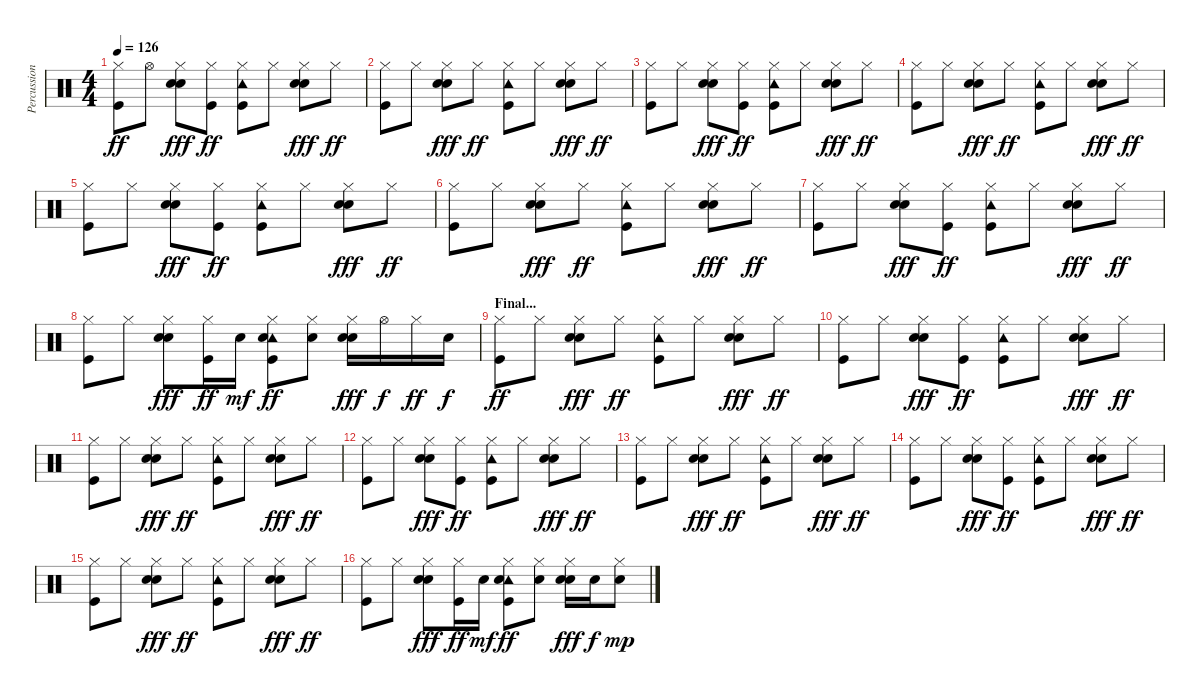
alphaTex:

\track ("Percussions" "Percussion") {instrument percussion}
\staff {score}
\articulation defaults
\ts (4 4)
\tempo 126
\clef neutral
\ks c
("Hi-Hat (closed)" "Kick (hit)").8{dy ff} "Hi-Hat (open)".8 ("Hi-Hat (closed)" "Hand Clap (hit)" "Electric Snare (hit)").8{dy fff} ("Hi-Hat (closed)" "Kick (hit)").8{dy ff} ("Hi-Hat (closed)" "Tambourine (hit)" "Kick (hit)").8 "Hi-Hat (closed)".8 ("Hi-Hat (closed)" "Hand Clap (hit)" "Electric Snare (hit)").8{dy fff} "Hi-Hat (closed)".8{dy ff} |
("Hi-Hat (closed)" "Kick (hit)").8 "Hi-Hat (closed)".8 ("Hi-Hat (closed)" "Hand Clap (hit)" "Electric Snare (hit)").8{dy fff} "Hi-Hat (closed)".8{dy ff} ("Hi-Hat (closed)" "Tambourine (hit)" "Kick (hit)").8 "Hi-Hat (closed)".8 ("Hi-Hat (closed)" "Hand Clap (hit)" "Electric Snare (hit)").8{dy fff} "Hi-Hat (closed)".8{dy ff} |
("Hi-Hat (closed)" "Kick (hit)").8 "Hi-Hat (closed)".8 ("Hi-Hat (closed)" "Hand Clap (hit)" "Electric Snare (hit)").8{dy fff} ("Hi-Hat (closed)" "Kick (hit)").8{dy ff} ("Hi-Hat (closed)" "Tambourine (hit)" "Kick (hit)").8 "Hi-Hat (closed)".8 ("Hi-Hat (closed)" "Hand Clap (hit)" "Electric Snare (hit)").8{dy fff} "Hi-Hat (closed)".8{dy ff} |
("Hi-Hat (closed)" "Kick (hit)").8 "Hi-Hat (closed)".8 ("Hi-Hat (closed)" "Hand Clap (hit)" "Electric Snare (hit)").8{dy fff} "Hi-Hat (closed)".8{dy ff} ("Hi-Hat (closed)" "Tambourine (hit)" "Kick (hit)").8 "Hi-Hat (closed)".8 ("Hi-Hat (closed)" "Hand Clap (hit)" "Electric Snare (hit)").8{dy fff} "Hi-Hat (closed)".8{dy ff} |
("Hi-Hat (closed)" "Kick (hit)").8 "Hi-Hat (closed)".8 ("Hi-Hat (closed)" "Hand Clap (hit)" "Electric Snare (hit)").8{dy fff} ("Hi-Hat (closed)" "Kick (hit)").8{dy ff} ("Hi-Hat (closed)" "Tambourine (hit)" "Kick (hit)").8 "Hi-Hat (closed)".8 ("Hi-Hat (closed)" "Hand Clap (hit)" "Electric Snare (hit)").8{dy fff} "Hi-Hat (closed)".8{dy ff} |
("Hi-Hat (closed)" "Kick (hit)").8 "Hi-Hat (closed)".8 ("Hi-Hat (closed)" "Hand Clap (hit)" "Electric Snare (hit)").8{dy fff} "Hi-Hat (closed)".8{dy ff} ("Hi-Hat (closed)" "Tambourine (hit)" "Kick (hit)").8 "Hi-Hat (closed)".8 ("Hi-Hat (closed)" "Hand Clap (hit)" "Electric Snare (hit)").8{dy fff} "Hi-Hat (closed)".8{dy ff} |
("Hi-Hat (closed)" "Kick (hit)").8 "Hi-Hat (closed)".8 ("Hi-Hat (closed)" "Hand Clap (hit)" "Electric Snare (hit)").8{dy fff} ("Hi-Hat (closed)" "Kick (hit)").8{dy ff} ("Hi-Hat (closed)" "Tambourine (hit)" "Kick (hit)").8 "Hi-Hat (closed)".8 ("Hi-Hat (closed)" "Hand Clap (hit)" "Electric Snare (hit)").8{dy fff} "Hi-Hat (closed)".8{dy ff} |
("Hi-Hat (closed)" "Kick (hit)").8 "Hi-Hat (closed)".8 ("Hi-Hat (closed)" "Hand Clap (hit)" "Electric Snare (hit)").8{dy fff} ("Hi-Hat (closed)" "Kick (hit)").16{dy ff} "Electric Snare (hit)".16{dy mf} ("Hi-Hat (closed)" "Tambourine (hit)" "Electric Snare (hit)" "Kick (hit)").8{dy ff} ("Hi-Hat (closed)" "Electric Snare (hit)").8 ("Hi-Hat (closed)" "Hand Clap (hit)" "Electric Snare (hit)").16{dy fff} "Hi-Hat (open)".16{dy f} "Hi-Hat (closed)".16{dy ff} "Electric Snare (hit)".16{dy f} |
\section ("" "Final...")
("Hi-Hat (closed)" "Kick (hit)").8{dy ff} "Hi-Hat (closed)".8 ("Hi-Hat (closed)" "Hand Clap (hit)" "Electric Snare (hit)").8{dy fff} "Hi-Hat (closed)".8{dy ff} ("Hi-Hat (closed)" "Tambourine (hit)" "Kick (hit)").8 "Hi-Hat (closed)".8 ("Hi-Hat (closed)" "Hand Clap (hit)" "Electric Snare (hit)").8{dy fff} "Hi-Hat (closed)".8{dy ff} |
("Hi-Hat (closed)" "Kick (hit)").8 "Hi-Hat (closed)".8 ("Hi-Hat (closed)" "Hand Clap (hit)" "Electric Snare (hit)").8{dy fff} ("Hi-Hat (closed)" "Kick (hit)").8{dy ff} ("Hi-Hat (closed)" "Tambourine (hit)" "Kick (hit)").8 "Hi-Hat (closed)".8 ("Hi-Hat (closed)" "Hand Clap (hit)" "Electric Snare (hit)").8{dy fff} "Hi-Hat (closed)".8{dy ff} |
("Hi-Hat (closed)" "Kick (hit)").8 "Hi-Hat (closed)".8 ("Hi-Hat (closed)" "Hand Clap (hit)" "Electric Snare (hit)").8{dy fff} "Hi-Hat (closed)".8{dy ff} ("Hi-Hat (closed)" "Tambourine (hit)" "Kick (hit)").8 "Hi-Hat (closed)".8 ("Hi-Hat (closed)" "Hand Clap (hit)" "Electric Snare (hit)").8{dy fff} "Hi-Hat (closed)".8{dy ff} |
("Hi-Hat (closed)" "Kick (hit)").8 "Hi-Hat (closed)".8 ("Hi-Hat (closed)" "Hand Clap (hit)" "Electric Snare (hit)").8{dy fff} ("Hi-Hat (closed)" "Kick (hit)").8{dy ff} ("Hi-Hat (closed)" "Tambourine (hit)" "Kick (hit)").8 "Hi-Hat (closed)".8 ("Hi-Hat (closed)" "Hand Clap (hit)" "Electric Snare (hit)").8{dy fff} "Hi-Hat (closed)".8{dy ff} |
("Hi-Hat (closed)" "Kick (hit)").8 "Hi-Hat (closed)".8 ("Hi-Hat (closed)" "Hand Clap (hit)" "Electric Snare (hit)").8{dy fff} "Hi-Hat (closed)".8{dy ff} ("Hi-Hat (closed)" "Tambourine (hit)" "Kick (hit)").8 "Hi-Hat (closed)".8 ("Hi-Hat (closed)" "Hand Clap (hit)" "Electric Snare (hit)").8{dy fff} "Hi-Hat (closed)".8{dy ff} |
("Hi-Hat (closed)" "Kick (hit)").8 "Hi-Hat (closed)".8 ("Hi-Hat (closed)" "Hand Clap (hit)" "Electric Snare (hit)").8{dy fff} ("Hi-Hat (closed)" "Kick (hit)").8{dy ff} ("Hi-Hat (closed)" "Tambourine (hit)" "Kick (hit)").8 "Hi-Hat (closed)".8 ("Hi-Hat (closed)" "Hand Clap (hit)" "Electric Snare (hit)").8{dy fff} "Hi-Hat (closed)".8{dy ff} |
("Hi-Hat (closed)" "Kick (hit)").8 "Hi-Hat (closed)".8 ("Hi-Hat (closed)" "Hand Clap (hit)" "Electric Snare (hit)").8{dy fff} "Hi-Hat (closed)".8{dy ff} ("Hi-Hat (closed)" "Tambourine (hit)" "Kick (hit)").8 "Hi-Hat (closed)".8 ("Hi-Hat (closed)" "Hand Clap (hit)" "Electric Snare (hit)").8{dy fff} "Hi-Hat (closed)".8{dy ff} |
("Hi-Hat (closed)" "Kick (hit)").8 "Hi-Hat (closed)".8 ("Hi-Hat (closed)" "Hand Clap (hit)" "Electric Snare (hit)").8{dy fff} ("Hi-Hat (closed)" "Kick (hit)").16{dy ff} "Electric Snare (hit)".16{dy mf} ("Hi-Hat (closed)" "Tambourine (hit)" "Electric Snare (hit)" "Kick (hit)").8{dy ff} ("Hi-Hat (closed)" "Electric Snare (hit)").8 ("Hi-Hat (closed)" "Hand Clap (hit)" "Electric Snare (hit)").16{dy fff} "Electric Snare (hit)".16{dy f} ("Hi-Hat (closed)" "Electric Snare (hit)").8{dy mp}
